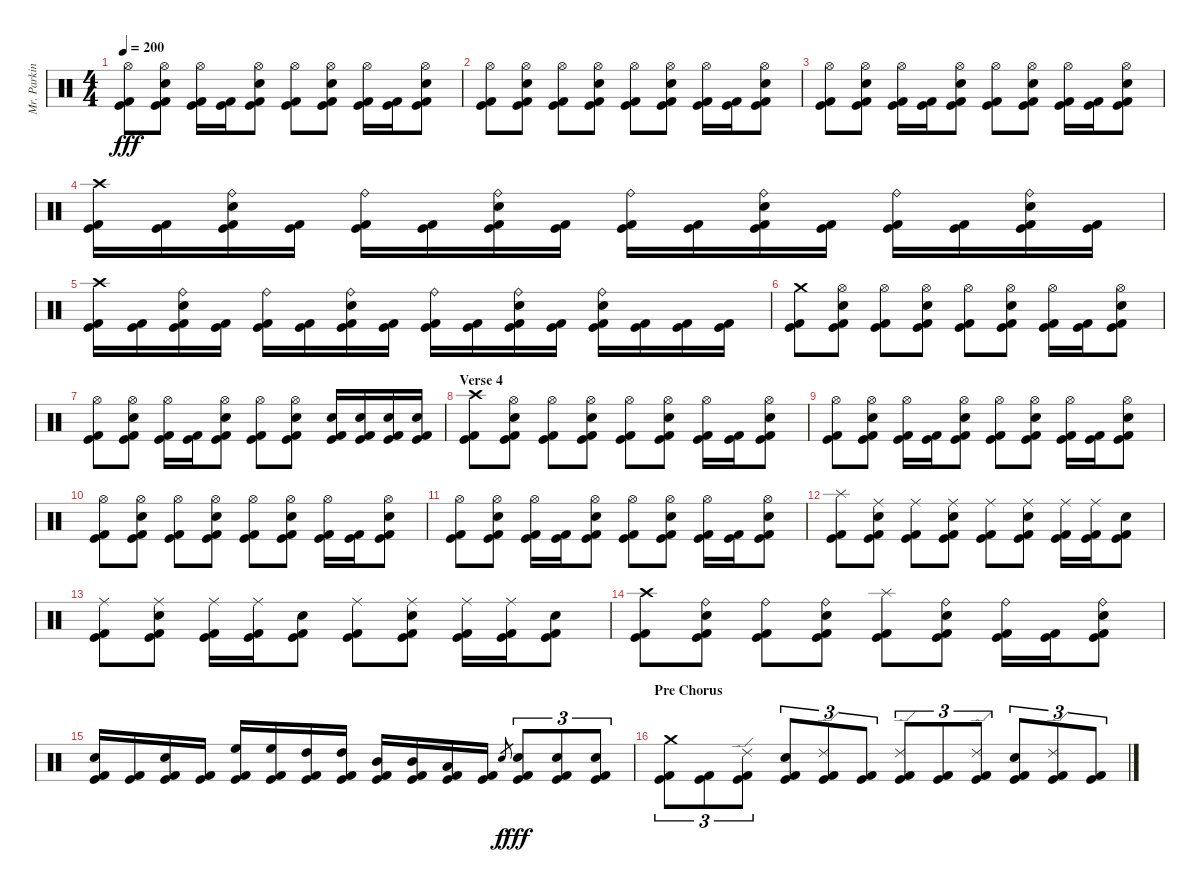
\track ("Mr. Parkinson" "Mr. Parkin") {instrument percussion}
\staff {score}
\articulation defaults
\ts (4 4)
\tempo 200
\clef neutral
\ks c
("Hi-Hat (open)" "Kick (hit)" "Kick (hit) 2").8{dy fff} ("Hi-Hat (open)" "Electric Snare (hit)" "Kick (hit)" "Kick (hit) 2").8 ("Hi-Hat (open)" "Kick (hit)" "Kick (hit) 2").16 ("Kick (hit)" "Kick (hit) 2").16 ("Hi-Hat (open)" "Electric Snare (hit)" "Kick (hit)" "Kick (hit) 2").8 ("Hi-Hat (open)" "Kick (hit)" "Kick (hit) 2").8 ("Hi-Hat (open)" "Electric Snare (hit)" "Kick (hit)" "Kick (hit) 2").8 ("Hi-Hat (open)" "Kick (hit)" "Kick (hit) 2").16 ("Kick (hit)" "Kick (hit) 2").16 ("Hi-Hat (open)" "Electric Snare (hit)" "Kick (hit)" "Kick (hit) 2").8 |
("Hi-Hat (open)" "Kick (hit)" "Kick (hit) 2").8 ("Hi-Hat (open)" "Electric Snare (hit)" "Kick (hit)" "Kick (hit) 2").8 ("Hi-Hat (open)" "Kick (hit)" "Kick (hit) 2").8 ("Hi-Hat (open)" "Electric Snare (hit)" "Kick (hit)" "Kick (hit) 2").8 ("Hi-Hat (open)" "Kick (hit)" "Kick (hit) 2").8 ("Hi-Hat (open)" "Electric Snare (hit)" "Kick (hit)" "Kick (hit) 2").8 ("Hi-Hat (open)" "Kick (hit)" "Kick (hit) 2").16 ("Kick (hit)" "Kick (hit) 2").16 ("Hi-Hat (open)" "Electric Snare (hit)" "Kick (hit)" "Kick (hit) 2").8 |
("Hi-Hat (open)" "Kick (hit)" "Kick (hit) 2").8 ("Hi-Hat (open)" "Electric Snare (hit)" "Kick (hit)" "Kick (hit) 2").8 ("Hi-Hat (open)" "Kick (hit)" "Kick (hit) 2").16 ("Kick (hit)" "Kick (hit) 2").16 ("Hi-Hat (open)" "Electric Snare (hit)" "Kick (hit)" "Kick (hit) 2").8 ("Hi-Hat (open)" "Kick (hit)" "Kick (hit) 2").8 ("Hi-Hat (open)" "Electric Snare (hit)" "Kick (hit)" "Kick (hit) 2").8 ("Hi-Hat (open)" "Kick (hit)" "Kick (hit) 2").16 ("Kick (hit)" "Kick (hit) 2").16 ("Hi-Hat (open)" "Electric Snare (hit)" "Kick (hit)" "Kick (hit) 2").8 |
("Crash high (hit)" "Kick (hit)" "Kick (hit) 2").16 ("Kick (hit)" "Kick (hit) 2").16 ("Ride (bell)" "Electric Snare (hit)" "Kick (hit)" "Kick (hit) 2").16 ("Kick (hit)" "Kick (hit) 2").16 ("Ride (bell)" "Kick (hit)" "Kick (hit) 2").16 ("Kick (hit)" "Kick (hit) 2").16 ("Ride (bell)" "Electric Snare (hit)" "Kick (hit)" "Kick (hit) 2").16 ("Kick (hit)" "Kick (hit) 2").16 ("Ride (bell)" "Kick (hit)" "Kick (hit) 2").16 ("Kick (hit)" "Kick (hit) 2").16 ("Ride (bell)" "Electric Snare (hit)" "Kick (hit)" "Kick (hit) 2").16 ("Kick (hit)" "Kick (hit) 2").16 ("Ride (bell)" "Kick (hit)" "Kick (hit) 2").16 ("Kick (hit)" "Kick (hit) 2").16 ("Ride (bell)" "Electric Snare (hit)" "Kick (hit)" "Kick (hit) 2").16 ("Kick (hit)" "Kick (hit) 2").16 |
("Crash high (hit)" "Kick (hit)" "Kick (hit) 2").16 ("Kick (hit)" "Kick (hit) 2").16 ("Ride (bell)" "Electric Snare (hit)" "Kick (hit)" "Kick (hit) 2").16 ("Kick (hit)" "Kick (hit) 2").16 ("Ride (bell)" "Kick (hit)" "Kick (hit) 2").16 ("Kick (hit)" "Kick (hit) 2").16 ("Ride (bell)" "Electric Snare (hit)" "Kick (hit)" "Kick (hit) 2").16 ("Kick (hit)" "Kick (hit) 2").16 ("Ride (bell)" "Kick (hit)" "Kick (hit) 2").16 ("Kick (hit)" "Kick (hit) 2").16 ("Ride (bell)" "Electric Snare (hit)" "Kick (hit)" "Kick (hit) 2").16 ("Kick (hit)" "Kick (hit) 2").16 ("Ride (bell)" "Electric Snare (hit)" "Kick (hit)" "Kick (hit) 2").16 ("Kick (hit)" "Kick (hit) 2").16 ("Kick (hit)" "Kick (hit) 2").16 ("Kick (hit)" "Kick (hit) 2").16 |
("Crash medium (hit)" "Kick (hit)" "Kick (hit) 2").8 ("Hi-Hat (open)" "Electric Snare (hit)" "Kick (hit)" "Kick (hit) 2").8 ("Hi-Hat (open)" "Kick (hit)" "Kick (hit) 2").8 ("Hi-Hat (open)" "Electric Snare (hit)" "Kick (hit)" "Kick (hit) 2").8 ("Hi-Hat (open)" "Kick (hit)" "Kick (hit) 2").8 ("Hi-Hat (open)" "Electric Snare (hit)" "Kick (hit)" "Kick (hit) 2").8 ("Hi-Hat (open)" "Kick (hit)" "Kick (hit) 2").16 ("Kick (hit)" "Kick (hit) 2").16 ("Hi-Hat (open)" "Electric Snare (hit)" "Kick (hit)" "Kick (hit) 2").8 |
("Hi-Hat (open)" "Kick (hit)" "Kick (hit) 2").8 ("Hi-Hat (open)" "Electric Snare (hit)" "Kick (hit)" "Kick (hit) 2").8 ("Hi-Hat (open)" "Kick (hit)" "Kick (hit) 2").16 ("Kick (hit)" "Kick (hit) 2").16 ("Hi-Hat (open)" "Electric Snare (hit)" "Kick (hit)" "Kick (hit) 2").8 ("Hi-Hat (open)" "Kick (hit)" "Kick (hit) 2").8 ("Hi-Hat (open)" "Electric Snare (hit)" "Kick (hit)" "Kick (hit) 2").8 ("Electric Snare (hit)" "Kick (hit)" "Kick (hit) 2").16 ("Electric Snare (hit)" "Kick (hit)" "Kick (hit) 2").16 ("Electric Snare (hit)" "Kick (hit)" "Kick (hit) 2").16 ("Electric Snare (hit)" "Kick (hit)" "Kick (hit) 2").16 |
\section ("" "Verse 4")
("Crash high (hit)" "Kick (hit)" "Kick (hit) 2").8 ("Hi-Hat (open)" "Electric Snare (hit)" "Kick (hit)" "Kick (hit) 2").8 ("Hi-Hat (open)" "Kick (hit)" "Kick (hit) 2").8 ("Hi-Hat (open)" "Electric Snare (hit)" "Kick (hit)" "Kick (hit) 2").8 ("Hi-Hat (open)" "Kick (hit)" "Kick (hit) 2").8 ("Hi-Hat (open)" "Electric Snare (hit)" "Kick (hit)" "Kick (hit) 2").8 ("Hi-Hat (open)" "Kick (hit)" "Kick (hit) 2").16 ("Kick (hit)" "Kick (hit) 2").16 ("Hi-Hat (open)" "Electric Snare (hit)" "Kick (hit)" "Kick (hit) 2").8 |
("Hi-Hat (open)" "Kick (hit)" "Kick (hit) 2").8 ("Hi-Hat (open)" "Electric Snare (hit)" "Kick (hit)" "Kick (hit) 2").8 ("Hi-Hat (open)" "Kick (hit)" "Kick (hit) 2").16 ("Kick (hit)" "Kick (hit) 2").16 ("Hi-Hat (open)" "Electric Snare (hit)" "Kick (hit)" "Kick (hit) 2").8 ("Hi-Hat (open)" "Kick (hit)" "Kick (hit) 2").8 ("Hi-Hat (open)" "Electric Snare (hit)" "Kick (hit)" "Kick (hit) 2").8 ("Hi-Hat (open)" "Kick (hit)" "Kick (hit) 2").16 ("Kick (hit)" "Kick (hit) 2").16 ("Hi-Hat (open)" "Electric Snare (hit)" "Kick (hit)" "Kick (hit) 2").8 |
("Hi-Hat (open)" "Kick (hit)" "Kick (hit) 2").8 ("Hi-Hat (open)" "Electric Snare (hit)" "Kick (hit)" "Kick (hit) 2").8 ("Hi-Hat (open)" "Kick (hit)" "Kick (hit) 2").8 ("Hi-Hat (open)" "Electric Snare (hit)" "Kick (hit)" "Kick (hit) 2").8 ("Hi-Hat (open)" "Kick (hit)" "Kick (hit) 2").8 ("Hi-Hat (open)" "Electric Snare (hit)" "Kick (hit)" "Kick (hit) 2").8 ("Hi-Hat (open)" "Kick (hit)" "Kick (hit) 2").16 ("Kick (hit)" "Kick (hit) 2").16 ("Hi-Hat (open)" "Electric Snare (hit)" "Kick (hit)" "Kick (hit) 2").8 |
("Hi-Hat (open)" "Kick (hit)" "Kick (hit) 2").8 ("Hi-Hat (open)" "Electric Snare (hit)" "Kick (hit)" "Kick (hit) 2").8 ("Hi-Hat (open)" "Kick (hit)" "Kick (hit) 2").16 ("Kick (hit)" "Kick (hit) 2").16 ("Hi-Hat (open)" "Electric Snare (hit)" "Kick (hit)" "Kick (hit) 2").8 ("Hi-Hat (open)" "Kick (hit)" "Kick (hit) 2").8 ("Hi-Hat (open)" "Electric Snare (hit)" "Kick (hit)" "Kick (hit) 2").8 ("Hi-Hat (open)" "Kick (hit)" "Kick (hit) 2").16 ("Kick (hit)" "Kick (hit) 2").16 ("Hi-Hat (open)" "Electric Snare (hit)" "Kick (hit)" "Kick (hit) 2").8 |
("Splash (hit)" "Kick (hit)" "Kick (hit) 2").8 ("Ride (middle)" "Electric Snare (hit)" "Kick (hit)" "Kick (hit) 2").8 ("Ride (middle)" "Kick (hit)" "Kick (hit) 2").8 ("Ride (middle)" "Electric Snare (hit)" "Kick (hit)" "Kick (hit) 2").8 ("Ride (middle)" "Kick (hit)" "Kick (hit) 2").8 ("Ride (middle)" "Electric Snare (hit)" "Kick (hit)" "Kick (hit) 2").8 ("Ride (middle)" "Kick (hit)" "Kick (hit) 2").16 ("Ride (middle)" "Kick (hit)" "Kick (hit) 2").16 ("Electric Snare (hit)" "Kick (hit)" "Kick (hit) 2").8 |
("Ride (middle)" "Kick (hit)" "Kick (hit) 2").8 ("Ride (middle)" "Electric Snare (hit)" "Kick (hit)" "Kick (hit) 2").8 ("Ride (middle)" "Kick (hit)" "Kick (hit) 2").16 ("Ride (middle)" "Kick (hit)" "Kick (hit) 2").16 ("Electric Snare (hit)" "Kick (hit)" "Kick (hit) 2").8 ("Ride (middle)" "Kick (hit)" "Kick (hit) 2").8 ("Ride (middle)" "Electric Snare (hit)" "Kick (hit)" "Kick (hit) 2").8 ("Ride (middle)" "Kick (hit)" "Kick (hit) 2").16 ("Ride (middle)" "Kick (hit)" "Kick (hit) 2").16 ("Electric Snare (hit)" "Kick (hit)" "Kick (hit) 2").8 |
("Crash high (hit)" "Kick (hit)" "Kick (hit) 2").8 ("Ride (bell)" "Electric Snare (hit)" "Kick (hit)" "Kick (hit) 2").8 ("Ride (bell)" "Kick (hit)" "Kick (hit) 2").8 ("Ride (bell)" "Electric Snare (hit)" "Kick (hit)" "Kick (hit) 2").8 ("Splash (hit)" "Kick (hit)" "Kick (hit) 2").8 ("Ride (bell)" "Electric Snare (hit)" "Kick (hit)" "Kick (hit) 2").8 ("Ride (bell)" "Kick (hit)" "Kick (hit) 2").16 ("Kick (hit)" "Kick (hit) 2").16 ("Ride (bell)" "Electric Snare (hit)" "Kick (hit)" "Kick (hit) 2").8 |
("Electric Snare (hit)" "Kick (hit)" "Kick (hit) 2").16 ("Kick (hit)" "Kick (hit) 2").16 ("Electric Snare (hit)" "Kick (hit)" "Kick (hit) 2").16 ("Kick (hit)" "Kick (hit) 2").16 ("High Floor Tom (hit)" "Kick (hit)" "Kick (hit) 2").16 ("High Floor Tom (hit)" "Kick (hit)" "Kick (hit) 2").16 ("High Tom (hit)" "Kick (hit)" "Kick (hit) 2").16 ("High Tom (hit)" "Kick (hit)" "Kick (hit) 2").16 ("Mid Tom (hit)" "Kick (hit)" "Kick (hit) 2").16 ("Mid Tom (hit)" "Kick (hit)" "Kick (hit) 2").16 ("Low Tom (hit)" "Kick (hit)" "Kick (hit) 2").16 ("Kick (hit)" "Kick (hit) 2").16 "Electric Snare (hit)".8{gr dy f} ("Electric Snare (hit)" "Kick (hit)" "Kick (hit) 2").8{tu (3 2) dy fff} ("Electric Snare (hit)" "Kick (hit)" "Kick (hit) 2").8{tu (3 2)} ("Electric Snare (hit)" "Kick (hit)" "Kick (hit) 2").8{tu (3 2)} |
\section ("" "Pre Chorus")
("Crash medium (hit)" "Kick (hit)" "Kick (hit) 2").8{tu (3 2)} ("Kick (hit)" "Kick (hit) 2").8{tu (3 2)} ("Ride (edge) 2" "Kick (hit)" "Kick (hit) 2").8{tu (3 2)} ("Electric Snare (hit)" "Kick (hit)" "Kick (hit) 2").8{tu (3 2)} ("Ride (edge) 2" "Kick (hit)" "Kick (hit) 2").8{tu (3 2)} ("Kick (hit)" "Kick (hit) 2").8{tu (3 2)} ("Ride (edge) 2" "Kick (hit)" "Kick (hit) 2").8{tu (3 2)} ("Kick (hit)" "Kick (hit) 2").8{tu (3 2)} ("Ride (edge) 2" "Kick (hit)" "Kick (hit) 2").8{tu (3 2)} ("Electric Snare (hit)" "Kick (hit)" "Kick (hit) 2").8{tu (3 2)} ("Ride (edge) 2" "Kick (hit)" "Kick (hit) 2").8{tu (3 2)} ("Kick (hit)" "Kick (hit) 2").8{tu (3 2)}
